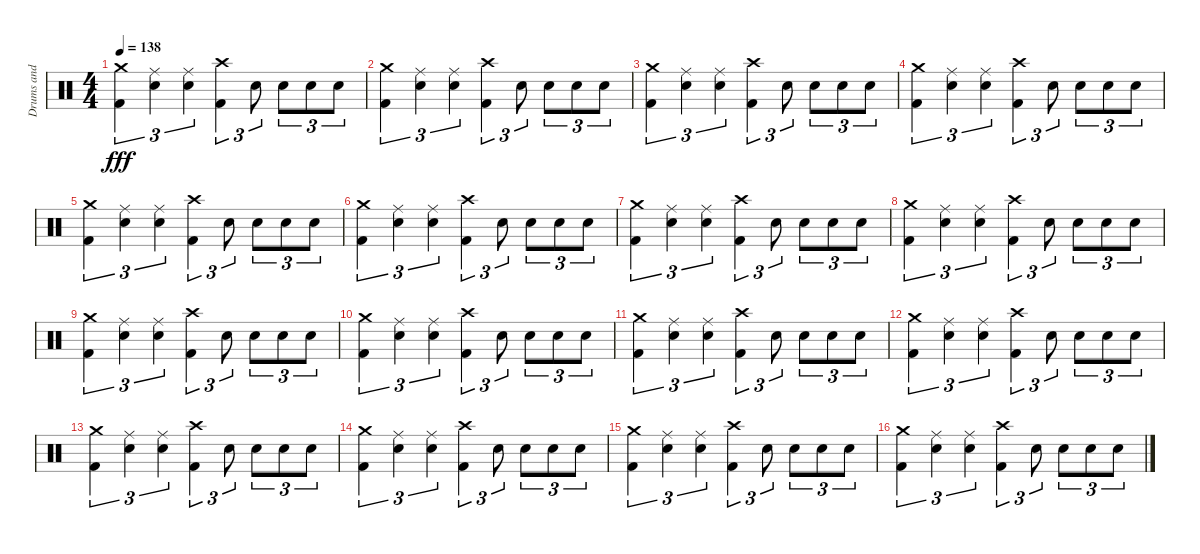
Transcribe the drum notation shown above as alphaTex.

\track ("Drums and Percussion" "Drums and ") {instrument percussion}
\staff {score}
\articulation defaults
\ts (4 4)
\tempo 138
\clef neutral
\ks c
("Crash medium (hit)" "Kick (hit) 2").4{tu (3 2) dy fff} ("Ride (middle)" "Snare (hit) 2").4{tu (3 2)} ("Ride (middle)" "Snare (hit) 2").4{tu (3 2)} ("Crash high (hit)" "Kick (hit) 2").4{tu (3 2)} "Snare (hit) 2".8{tu (3 2)} "Snare (hit) 2".8{tu (3 2)} "Snare (hit) 2".8{tu (3 2)} "Snare (hit) 2".8{tu (3 2)} |
("Crash medium (hit)" "Kick (hit) 2").4{tu (3 2)} ("Ride (middle)" "Snare (hit) 2").4{tu (3 2)} ("Ride (middle)" "Snare (hit) 2").4{tu (3 2)} ("Crash high (hit)" "Kick (hit) 2").4{tu (3 2)} "Snare (hit) 2".8{tu (3 2)} "Snare (hit) 2".8{tu (3 2)} "Snare (hit) 2".8{tu (3 2)} "Snare (hit) 2".8{tu (3 2)} |
("Crash medium (hit)" "Kick (hit) 2").4{tu (3 2)} ("Ride (middle)" "Snare (hit) 2").4{tu (3 2)} ("Ride (middle)" "Snare (hit) 2").4{tu (3 2)} ("Crash high (hit)" "Kick (hit) 2").4{tu (3 2)} "Snare (hit) 2".8{tu (3 2)} "Snare (hit) 2".8{tu (3 2)} "Snare (hit) 2".8{tu (3 2)} "Snare (hit) 2".8{tu (3 2)} |
("Crash medium (hit)" "Kick (hit) 2").4{tu (3 2)} ("Ride (middle)" "Snare (hit) 2").4{tu (3 2)} ("Ride (middle)" "Snare (hit) 2").4{tu (3 2)} ("Crash high (hit)" "Kick (hit) 2").4{tu (3 2)} "Snare (hit) 2".8{tu (3 2)} "Snare (hit) 2".8{tu (3 2)} "Snare (hit) 2".8{tu (3 2)} "Snare (hit) 2".8{tu (3 2)} |
("Crash medium (hit)" "Kick (hit) 2").4{tu (3 2)} ("Ride (middle)" "Snare (hit) 2").4{tu (3 2)} ("Ride (middle)" "Snare (hit) 2").4{tu (3 2)} ("Crash high (hit)" "Kick (hit) 2").4{tu (3 2)} "Snare (hit) 2".8{tu (3 2)} "Snare (hit) 2".8{tu (3 2)} "Snare (hit) 2".8{tu (3 2)} "Snare (hit) 2".8{tu (3 2)} |
("Crash medium (hit)" "Kick (hit) 2").4{tu (3 2)} ("Ride (middle)" "Snare (hit) 2").4{tu (3 2)} ("Ride (middle)" "Snare (hit) 2").4{tu (3 2)} ("Crash high (hit)" "Kick (hit) 2").4{tu (3 2)} "Snare (hit) 2".8{tu (3 2)} "Snare (hit) 2".8{tu (3 2)} "Snare (hit) 2".8{tu (3 2)} "Snare (hit) 2".8{tu (3 2)} |
("Crash medium (hit)" "Kick (hit) 2").4{tu (3 2)} ("Ride (middle)" "Snare (hit) 2").4{tu (3 2)} ("Ride (middle)" "Snare (hit) 2").4{tu (3 2)} ("Crash high (hit)" "Kick (hit) 2").4{tu (3 2)} "Snare (hit) 2".8{tu (3 2)} "Snare (hit) 2".8{tu (3 2)} "Snare (hit) 2".8{tu (3 2)} "Snare (hit) 2".8{tu (3 2)} |
("Crash medium (hit)" "Kick (hit) 2").4{tu (3 2)} ("Ride (middle)" "Snare (hit) 2").4{tu (3 2)} ("Ride (middle)" "Snare (hit) 2").4{tu (3 2)} ("Crash high (hit)" "Kick (hit) 2").4{tu (3 2)} "Snare (hit) 2".8{tu (3 2)} "Snare (hit) 2".8{tu (3 2)} "Snare (hit) 2".8{tu (3 2)} "Snare (hit) 2".8{tu (3 2)} |
("Crash medium (hit)" "Kick (hit) 2").4{tu (3 2)} ("Ride (middle)" "Snare (hit) 2").4{tu (3 2)} ("Ride (middle)" "Snare (hit) 2").4{tu (3 2)} ("Crash high (hit)" "Kick (hit) 2").4{tu (3 2)} "Snare (hit) 2".8{tu (3 2)} "Snare (hit) 2".8{tu (3 2)} "Snare (hit) 2".8{tu (3 2)} "Snare (hit) 2".8{tu (3 2)} |
("Crash medium (hit)" "Kick (hit) 2").4{tu (3 2)} ("Ride (middle)" "Snare (hit) 2").4{tu (3 2)} ("Ride (middle)" "Snare (hit) 2").4{tu (3 2)} ("Crash high (hit)" "Kick (hit) 2").4{tu (3 2)} "Snare (hit) 2".8{tu (3 2)} "Snare (hit) 2".8{tu (3 2)} "Snare (hit) 2".8{tu (3 2)} "Snare (hit) 2".8{tu (3 2)} |
("Crash medium (hit)" "Kick (hit) 2").4{tu (3 2)} ("Ride (middle)" "Snare (hit) 2").4{tu (3 2)} ("Ride (middle)" "Snare (hit) 2").4{tu (3 2)} ("Crash high (hit)" "Kick (hit) 2").4{tu (3 2)} "Snare (hit) 2".8{tu (3 2)} "Snare (hit) 2".8{tu (3 2)} "Snare (hit) 2".8{tu (3 2)} "Snare (hit) 2".8{tu (3 2)} |
("Crash medium (hit)" "Kick (hit) 2").4{tu (3 2)} ("Ride (middle)" "Snare (hit) 2").4{tu (3 2)} ("Ride (middle)" "Snare (hit) 2").4{tu (3 2)} ("Crash high (hit)" "Kick (hit) 2").4{tu (3 2)} "Snare (hit) 2".8{tu (3 2)} "Snare (hit) 2".8{tu (3 2)} "Snare (hit) 2".8{tu (3 2)} "Snare (hit) 2".8{tu (3 2)} |
("Crash medium (hit)" "Kick (hit) 2").4{tu (3 2) volume 0} ("Ride (middle)" "Snare (hit) 2").4{tu (3 2)} ("Ride (middle)" "Snare (hit) 2").4{tu (3 2)} ("Crash high (hit)" "Kick (hit) 2").4{tu (3 2)} "Snare (hit) 2".8{tu (3 2)} "Snare (hit) 2".8{tu (3 2)} "Snare (hit) 2".8{tu (3 2)} "Snare (hit) 2".8{tu (3 2)} |
("Crash medium (hit)" "Kick (hit) 2").4{tu (3 2)} ("Ride (middle)" "Snare (hit) 2").4{tu (3 2)} ("Ride (middle)" "Snare (hit) 2").4{tu (3 2)} ("Crash high (hit)" "Kick (hit) 2").4{tu (3 2)} "Snare (hit) 2".8{tu (3 2)} "Snare (hit) 2".8{tu (3 2)} "Snare (hit) 2".8{tu (3 2)} "Snare (hit) 2".8{tu (3 2)} |
("Crash medium (hit)" "Kick (hit) 2").4{tu (3 2)} ("Ride (middle)" "Snare (hit) 2").4{tu (3 2)} ("Ride (middle)" "Snare (hit) 2").4{tu (3 2)} ("Crash high (hit)" "Kick (hit) 2").4{tu (3 2)} "Snare (hit) 2".8{tu (3 2)} "Snare (hit) 2".8{tu (3 2)} "Snare (hit) 2".8{tu (3 2)} "Snare (hit) 2".8{tu (3 2)} |
("Crash medium (hit)" "Kick (hit) 2").4{tu (3 2)} ("Ride (middle)" "Snare (hit) 2").4{tu (3 2)} ("Ride (middle)" "Snare (hit) 2").4{tu (3 2)} ("Crash high (hit)" "Kick (hit) 2").4{tu (3 2)} "Snare (hit) 2".8{tu (3 2)} "Snare (hit) 2".8{tu (3 2)} "Snare (hit) 2".8{tu (3 2)} "Snare (hit) 2".8{tu (3 2)}
